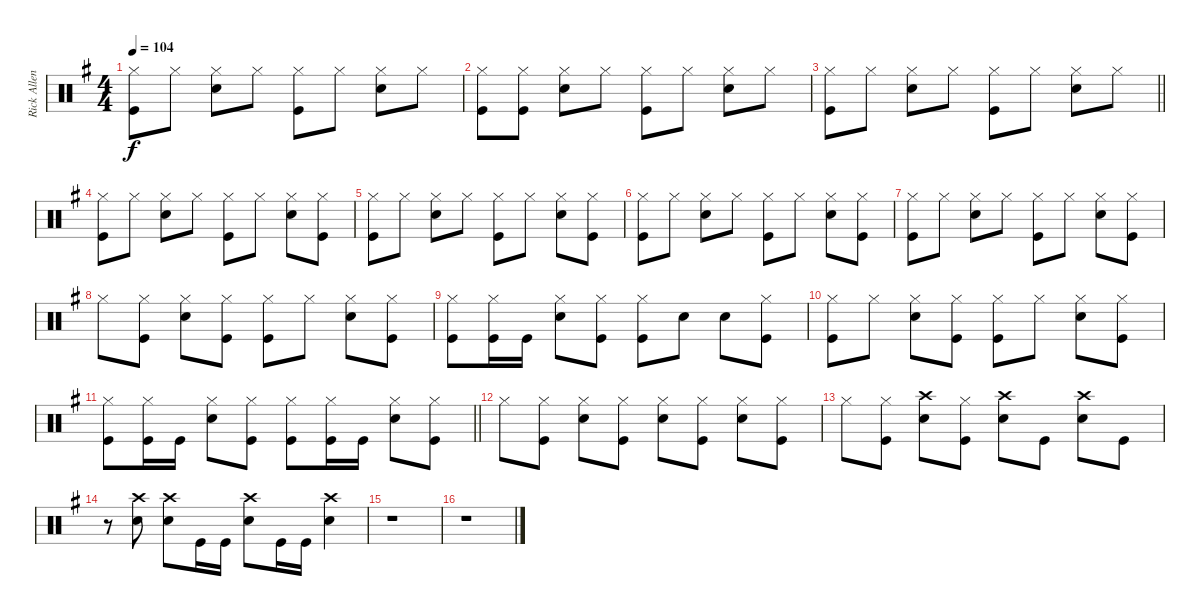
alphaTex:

\track ("Rick Allen" "Rick Allen") {instrument percussion}
\staff {score}
\articulation defaults
\ts (4 4)
\tempo 104
\clef neutral
\ks eminor
("Hi-Hat (closed)" "Kick (hit)").8{dy f} "Hi-Hat (closed)".8 ("Hi-Hat (closed)" "Snare (hit) 2").8 "Hi-Hat (closed)".8 ("Hi-Hat (closed)" "Kick (hit)").8 "Hi-Hat (closed)".8 ("Hi-Hat (closed)" "Snare (hit) 2").8 "Hi-Hat (closed)".8 |
("Hi-Hat (closed)" "Kick (hit)").8 ("Hi-Hat (closed)" "Kick (hit)").8 ("Hi-Hat (closed)" "Snare (hit) 2").8 "Hi-Hat (closed)".8 ("Hi-Hat (closed)" "Kick (hit)").8 "Hi-Hat (closed)".8 ("Hi-Hat (closed)" "Snare (hit) 2").8 "Hi-Hat (closed)".8 |
\barLineRight lightlight
("Hi-Hat (closed)" "Kick (hit)").8 "Hi-Hat (closed)".8 ("Hi-Hat (closed)" "Snare (hit) 2").8 "Hi-Hat (closed)".8 ("Hi-Hat (closed)" "Kick (hit)").8 "Hi-Hat (closed)".8 ("Hi-Hat (closed)" "Snare (hit) 2").8 "Hi-Hat (closed)".8 |
("Hi-Hat (closed)" "Kick (hit)").8 "Hi-Hat (closed)".8 ("Hi-Hat (closed)" "Snare (hit) 2").8 "Hi-Hat (closed)".8 ("Hi-Hat (closed)" "Kick (hit)").8 "Hi-Hat (closed)".8 ("Hi-Hat (closed)" "Snare (hit) 2").8 ("Hi-Hat (closed)" "Kick (hit)").8 |
("Hi-Hat (closed)" "Kick (hit)").8 "Hi-Hat (closed)".8 ("Hi-Hat (closed)" "Snare (hit) 2").8 "Hi-Hat (closed)".8 ("Hi-Hat (closed)" "Kick (hit)").8 "Hi-Hat (closed)".8 ("Hi-Hat (closed)" "Snare (hit) 2").8 ("Hi-Hat (closed)" "Kick (hit)").8 |
("Hi-Hat (closed)" "Kick (hit)").8 "Hi-Hat (closed)".8 ("Hi-Hat (closed)" "Snare (hit) 2").8 "Hi-Hat (closed)".8 ("Hi-Hat (closed)" "Kick (hit)").8 "Hi-Hat (closed)".8 ("Hi-Hat (closed)" "Snare (hit) 2").8 ("Hi-Hat (closed)" "Kick (hit)").8 |
("Hi-Hat (closed)" "Kick (hit)").8 "Hi-Hat (closed)".8 ("Hi-Hat (closed)" "Snare (hit) 2").8 "Hi-Hat (closed)".8 ("Hi-Hat (closed)" "Kick (hit)").8 "Hi-Hat (closed)".8 ("Hi-Hat (closed)" "Snare (hit) 2").8 ("Hi-Hat (closed)" "Kick (hit)").8 |
"Hi-Hat (closed)".8 ("Hi-Hat (closed)" "Kick (hit)").8 ("Hi-Hat (closed)" "Snare (hit) 2").8 ("Hi-Hat (closed)" "Kick (hit)").8 ("Hi-Hat (closed)" "Kick (hit)").8 "Hi-Hat (closed)".8 ("Hi-Hat (closed)" "Snare (hit) 2").8 ("Hi-Hat (closed)" "Kick (hit)").8 |
("Hi-Hat (closed)" "Kick (hit)").8 ("Hi-Hat (closed)" "Kick (hit)").16 "Kick (hit)".16 ("Hi-Hat (closed)" "Snare (hit) 2").8 ("Hi-Hat (closed)" "Kick (hit)").8 ("Hi-Hat (closed)" "Kick (hit)").8 "Snare (hit) 2".8 "Snare (hit) 2".8 ("Hi-Hat (closed)" "Kick (hit)").8 |
("Hi-Hat (closed)" "Kick (hit)").8 "Hi-Hat (closed)".8 ("Hi-Hat (closed)" "Snare (hit) 2").8 ("Hi-Hat (closed)" "Kick (hit)").8 ("Hi-Hat (closed)" "Kick (hit)").8 "Hi-Hat (closed)".8 ("Hi-Hat (closed)" "Snare (hit) 2").8 ("Hi-Hat (closed)" "Kick (hit)").8 |
\barLineRight lightlight
("Hi-Hat (closed)" "Kick (hit)").8 ("Hi-Hat (closed)" "Kick (hit)").16 "Kick (hit)".16 ("Hi-Hat (closed)" "Snare (hit) 2").8 ("Hi-Hat (closed)" "Kick (hit)").8 ("Hi-Hat (closed)" "Kick (hit)").8 ("Hi-Hat (closed)" "Kick (hit)").16 "Kick (hit)".16 ("Hi-Hat (closed)" "Snare (hit) 2").8 ("Hi-Hat (closed)" "Kick (hit)").8 |
"Hi-Hat (closed)".8 ("Hi-Hat (closed)" "Kick (hit)").8 ("Hi-Hat (closed)" "Snare (hit) 2").8 ("Hi-Hat (closed)" "Kick (hit)").8 ("Hi-Hat (closed)" "Snare (hit) 2").8 ("Hi-Hat (closed)" "Kick (hit)").8 ("Hi-Hat (closed)" "Snare (hit) 2").8 ("Hi-Hat (closed)" "Kick (hit)").8 |
"Hi-Hat (closed)".8 ("Hi-Hat (closed)" "Kick (hit)").8 ("Crash high (hit)" "Snare (hit) 2").8 ("Hi-Hat (closed)" "Kick (hit)").8 ("Crash high (hit)" "Snare (hit) 2").8 "Kick (hit)".8 ("Crash high (hit)" "Snare (hit) 2").8 "Kick (hit)".8 |
r.8 ("Crash high (hit)" "Snare (hit) 2").8 ("Crash high (hit)" "Snare (hit) 2").8 "Kick (hit)".16 "Kick (hit)".16 ("Crash high (hit)" "Snare (hit) 2").8 "Kick (hit)".16 "Kick (hit)".16 ("Crash high (hit)" "Snare (hit) 2").4 |
r.1 |
r.1
